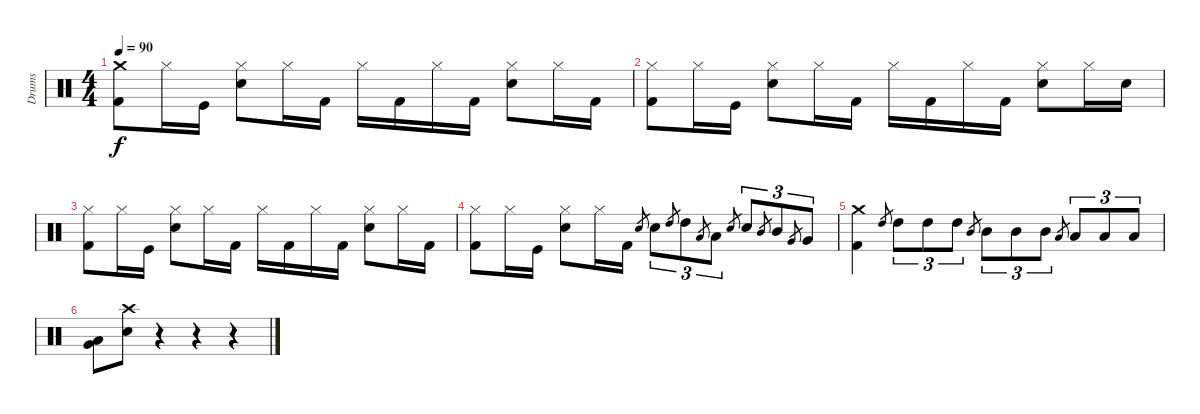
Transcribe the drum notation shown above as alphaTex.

\track ("Drums" "Drums") {instrument percussion}
\staff {score}
\articulation defaults
\ts (4 4)
\tempo 90
\clef neutral
\ks c
("Crash medium (hit)" "Kick (hit) 2").8{dy f} "Hi-Hat (closed)".16 "Kick (hit)".16 ("Hi-Hat (closed)" "Snare (hit) 2").8 "Hi-Hat (closed)".16 "Kick (hit) 2".16 "Hi-Hat (closed)".16 "Kick (hit) 2".16 "Hi-Hat (closed)".16 "Kick (hit) 2".16 ("Hi-Hat (closed)" "Snare (hit) 2").8 "Hi-Hat (closed)".16 "Kick (hit) 2".16 |
("Hi-Hat (closed)" "Kick (hit) 2").8 "Hi-Hat (closed)".16 "Kick (hit)".16 ("Hi-Hat (closed)" "Snare (hit) 2").8 "Hi-Hat (closed)".16 "Kick (hit) 2".16 "Hi-Hat (closed)".16 "Kick (hit) 2".16 "Hi-Hat (closed)".16 "Kick (hit) 2".16 ("Hi-Hat (closed)" "Snare (hit) 2").8 "Hi-Hat (closed)".16 "Snare (hit) 2".16 |
("Hi-Hat (closed)" "Kick (hit) 2").8 "Hi-Hat (closed)".16 "Kick (hit)".16 ("Hi-Hat (closed)" "Snare (hit) 2").8 "Hi-Hat (closed)".16 "Kick (hit) 2".16 "Hi-Hat (closed)".16 "Kick (hit) 2".16 "Hi-Hat (closed)".16 "Kick (hit) 2".16 ("Hi-Hat (closed)" "Snare (hit) 2").8 "Hi-Hat (closed)".16 "Kick (hit) 2".16 |
("Hi-Hat (closed)" "Kick (hit) 2").8 "Hi-Hat (closed)".16 "Kick (hit)".16 ("Hi-Hat (closed)" "Snare (hit) 2").8 "Hi-Hat (closed)".16 "Kick (hit) 2".16 "Snare (hit) 2".8{gr} "Snare (hit) 2".8{tu (3 2)} "High Tom (hit)".8{gr} "High Tom (hit)".8{tu (3 2)} "Low Tom (hit)".8{gr} "Low Tom (hit)".8{tu (3 2)} "Snare (hit) 2".8{gr} "Snare (hit) 2".8{tu (3 2)} "Mid Tom (hit)".8{gr} "Mid Tom (hit)".8{tu (3 2)} "Very Low Tom (hit)".8{gr} "Very Low Tom (hit)".8{tu (3 2)} |
("Crash medium (hit)" "Kick (hit) 2").4 "High Tom (hit)".8{gr} "High Tom (hit)".8{tu (3 2)} "High Tom (hit)".8{tu (3 2)} "High Tom (hit)".8{tu (3 2)} "Mid Tom (hit)".8{gr} "Mid Tom (hit)".8{tu (3 2)} "Mid Tom (hit)".8{tu (3 2)} "Mid Tom (hit)".8{tu (3 2)} "Low Tom (hit)".8{gr} "Low Tom (hit)".8{tu (3 2)} "Low Tom (hit)".8{tu (3 2)} "Low Tom (hit)".8{tu (3 2)} |
("Very Low Tom (hit)" "Low Floor Tom (hit)").8 ("Crash high (hit)" "Snare (hit) 2").8 r.4 r.4 r.4
